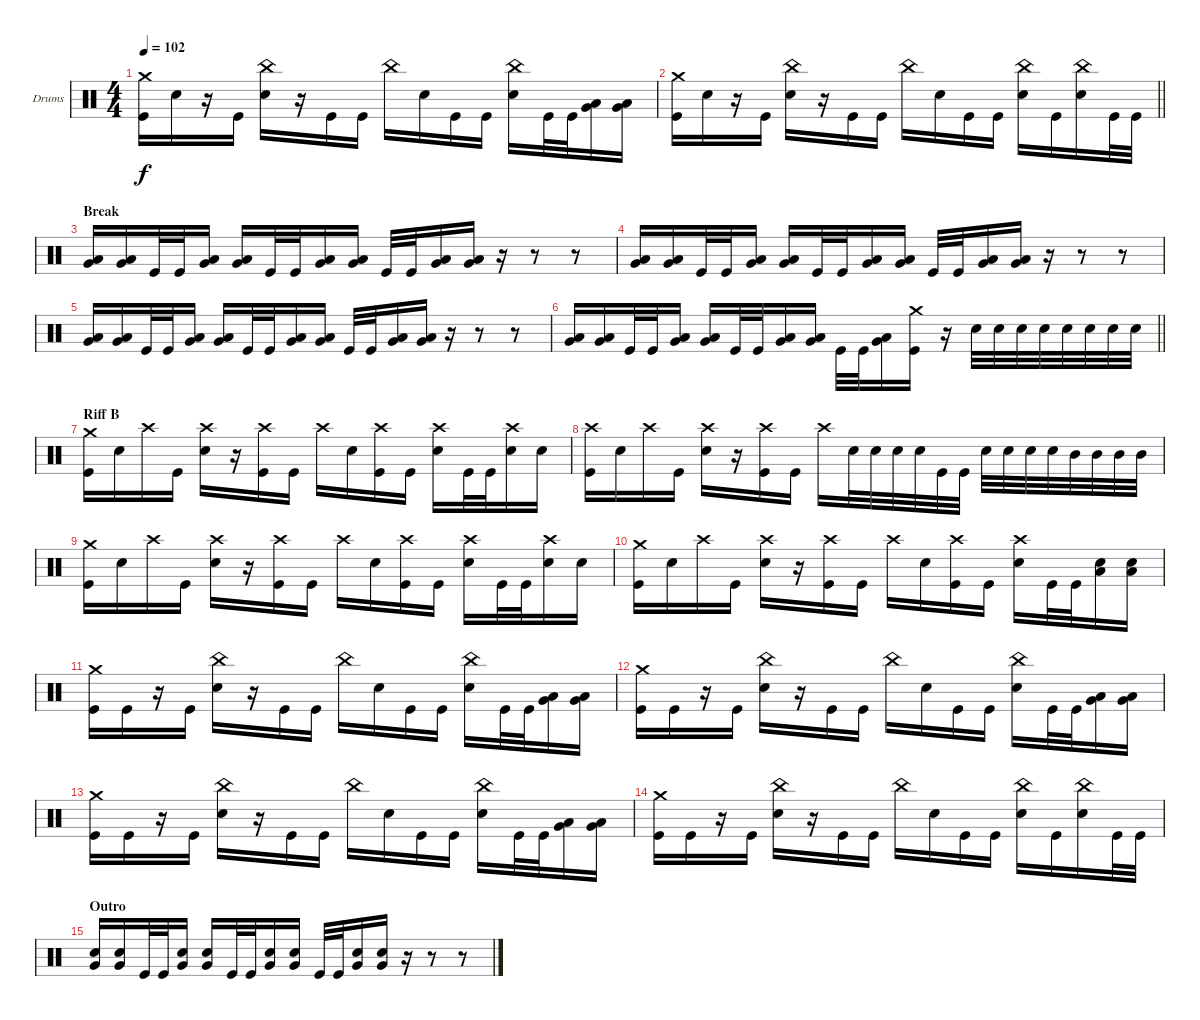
\bracketExtendMode groupsimilarinstruments
\firstSystemTrackNameOrientation horizontal
\otherSystemsTrackNameOrientation horizontal
\track ("Dave McClain" "Drums") {instrument percussion}
\staff {score}
\articulation defaults
\ts (4 4)
\tempo 102
\clef neutral
\ks c
("Crash medium (hit)" "Kick (hit)").16{dy f} "Snare (hit) 2".16 r.16 "Kick (hit)".16 ("China (hit)" "Snare (hit) 2").16 r.16 "Kick (hit)".16 "Kick (hit)".16 "China (hit)".16 "Snare (hit) 2".16 "Kick (hit)".16 "Kick (hit)".16 ("China (hit)" "Snare (hit) 2").16 "Kick (hit)".32 "Kick (hit)".32 ("Low Tom (hit)" "Very Low Tom (hit)").16 ("Low Tom (hit)" "Very Low Tom (hit)").16 |
\barLineRight lightlight
("Crash medium (hit)" "Kick (hit)").16 "Snare (hit) 2".16 r.16 "Kick (hit)".16 ("China (hit)" "Snare (hit) 2").16 r.16 "Kick (hit)".16 "Kick (hit)".16 "China (hit)".16 "Snare (hit) 2".16 "Kick (hit)".16 "Kick (hit)".16 ("China (hit)" "Snare (hit) 2").16 "Kick (hit)".16 ("China (hit)" "Snare (hit) 2").16 "Kick (hit)".32 "Kick (hit)".32 |
\section ("" "Break")
("Low Tom (hit)" "Very Low Tom (hit)").16 ("Low Tom (hit)" "Very Low Tom (hit)").16 "Kick (hit)".32 "Kick (hit)".32 ("Low Tom (hit)" "Very Low Tom (hit)").16 ("Low Tom (hit)" "Very Low Tom (hit)").16 "Kick (hit)".32 "Kick (hit)".32 ("Low Tom (hit)" "Very Low Tom (hit)").16 ("Low Tom (hit)" "Very Low Tom (hit)").16 "Kick (hit)".32 "Kick (hit)".32 ("Low Tom (hit)" "Very Low Tom (hit)").16 ("Low Tom (hit)" "Very Low Tom (hit)").16 r.16 r.8 r.8 |
("Low Tom (hit)" "Very Low Tom (hit)").16 ("Low Tom (hit)" "Very Low Tom (hit)").16 "Kick (hit)".32 "Kick (hit)".32 ("Low Tom (hit)" "Very Low Tom (hit)").16 ("Low Tom (hit)" "Very Low Tom (hit)").16 "Kick (hit)".32 "Kick (hit)".32 ("Low Tom (hit)" "Very Low Tom (hit)").16 ("Low Tom (hit)" "Very Low Tom (hit)").16 "Kick (hit)".32 "Kick (hit)".32 ("Low Tom (hit)" "Very Low Tom (hit)").16 ("Low Tom (hit)" "Very Low Tom (hit)").16 r.16 r.8 r.8 |
("Low Tom (hit)" "Very Low Tom (hit)").16 ("Low Tom (hit)" "Very Low Tom (hit)").16 "Kick (hit)".32 "Kick (hit)".32 ("Low Tom (hit)" "Very Low Tom (hit)").16 ("Low Tom (hit)" "Very Low Tom (hit)").16 "Kick (hit)".32 "Kick (hit)".32 ("Low Tom (hit)" "Very Low Tom (hit)").16 ("Low Tom (hit)" "Very Low Tom (hit)").16 "Kick (hit)".32 "Kick (hit)".32 ("Low Tom (hit)" "Very Low Tom (hit)").16 ("Low Tom (hit)" "Very Low Tom (hit)").16 r.16 r.8 r.8 |
\barLineRight lightlight
("Low Tom (hit)" "Very Low Tom (hit)").16 ("Low Tom (hit)" "Very Low Tom (hit)").16 "Kick (hit)".32 "Kick (hit)".32 ("Low Tom (hit)" "Very Low Tom (hit)").16 ("Low Tom (hit)" "Very Low Tom (hit)").16 "Kick (hit)".32 "Kick (hit)".32 ("Low Tom (hit)" "Very Low Tom (hit)").16 ("Low Tom (hit)" "Very Low Tom (hit)").16 "Kick (hit)".32 "Kick (hit)".32 ("Low Tom (hit)" "Very Low Tom (hit)").16 ("Crash medium (hit)" "Kick (hit)").16 r.16 "Snare (hit) 2".32 "Snare (hit) 2".32 "Snare (hit) 2".32 "Snare (hit) 2".32 "Snare (hit) 2".32 "Snare (hit) 2".32 "Snare (hit) 2".32 "Snare (hit) 2".32 |
\section ("" "Riff B")
("Crash medium (hit)" "Kick (hit)").16 "Snare (hit) 2".16 "Crash high (hit)".16 "Kick (hit)".16 ("Crash high (hit)" "Snare (hit) 2").16 r.16 ("Crash high (hit)" "Kick (hit)").16 "Kick (hit)".16 "Crash high (hit)".16 "Snare (hit) 2".16 ("Crash high (hit)" "Kick (hit)").16 "Kick (hit)".16 ("Crash high (hit)" "Snare (hit) 2").16 "Kick (hit)".32 "Kick (hit)".32 ("Crash high (hit)" "Snare (hit) 2").16 "Snare (hit) 2".16 |
("Crash high (hit)" "Kick (hit)").16 "Snare (hit) 2".16 "Crash high (hit)".16 "Kick (hit)".16 ("Crash high (hit)" "Snare (hit) 2").16 r.16 ("Crash high (hit)" "Kick (hit)").16 "Kick (hit)".16 "Crash high (hit)".16 "Snare (hit) 2".32 "Snare (hit) 2".32 "Snare (hit) 2".32 "Snare (hit) 2".32 "Kick (hit)".32 "Kick (hit)".32 "Snare (hit) 2".32 "Snare (hit) 2".32 "Snare (hit) 2".32 "Snare (hit) 2".32 "Mid Tom (hit)".32 "Mid Tom (hit)".32 "Mid Tom (hit)".32 "Mid Tom (hit)".32 |
("Crash medium (hit)" "Kick (hit)").16 "Snare (hit) 2".16 "Crash high (hit)".16 "Kick (hit)".16 ("Crash high (hit)" "Snare (hit) 2").16 r.16 ("Crash high (hit)" "Kick (hit)").16 "Kick (hit)".16 "Crash high (hit)".16 "Snare (hit) 2".16 ("Crash high (hit)" "Kick (hit)").16 "Kick (hit)".16 ("Crash high (hit)" "Snare (hit) 2").16 "Kick (hit)".32 "Kick (hit)".32 ("Crash high (hit)" "Snare (hit) 2").16 "Snare (hit) 2".16 |
("Crash medium (hit)" "Kick (hit)").16 "Snare (hit) 2".16 "Crash high (hit)".16 "Kick (hit)".16 ("Crash high (hit)" "Snare (hit) 2").16 r.16 ("Crash high (hit)" "Kick (hit)").16 "Kick (hit)".16 "Crash high (hit)".16 "Snare (hit) 2".16 ("Crash high (hit)" "Kick (hit)").16 "Kick (hit)".16 ("Crash high (hit)" "Snare (hit) 2").16 "Kick (hit)".32 "Kick (hit)".32 ("Snare (hit) 2" "Low Tom (hit)").16 ("Snare (hit) 2" "Low Tom (hit)").16 |
("Crash medium (hit)" "Kick (hit)").16 "Kick (hit)".16 r.16 "Kick (hit)".16 ("China (hit)" "Snare (hit) 2").16 r.16 "Kick (hit)".16 "Kick (hit)".16 "China (hit)".16 "Snare (hit) 2".16 "Kick (hit)".16 "Kick (hit)".16 ("China (hit)" "Snare (hit) 2").16 "Kick (hit)".32 "Kick (hit)".32 ("Low Tom (hit)" "Very Low Tom (hit)").16 ("Low Tom (hit)" "Very Low Tom (hit)").16 |
("Crash medium (hit)" "Kick (hit)").16 "Kick (hit)".16 r.16 "Kick (hit)".16 ("China (hit)" "Snare (hit) 2").16 r.16 "Kick (hit)".16 "Kick (hit)".16 "China (hit)".16 "Snare (hit) 2".16 "Kick (hit)".16 "Kick (hit)".16 ("China (hit)" "Snare (hit) 2").16 "Kick (hit)".32 "Kick (hit)".32 ("Low Tom (hit)" "Very Low Tom (hit)").16 ("Low Tom (hit)" "Very Low Tom (hit)").16 |
("Crash medium (hit)" "Kick (hit)").16 "Kick (hit)".16 r.16 "Kick (hit)".16 ("China (hit)" "Snare (hit) 2").16 r.16 "Kick (hit)".16 "Kick (hit)".16 "China (hit)".16 "Snare (hit) 2".16 "Kick (hit)".16 "Kick (hit)".16 ("China (hit)" "Snare (hit) 2").16 "Kick (hit)".32 "Kick (hit)".32 ("Low Tom (hit)" "Very Low Tom (hit)").16 ("Low Tom (hit)" "Very Low Tom (hit)").16 |
("Crash medium (hit)" "Kick (hit)").16 "Kick (hit)".16 r.16 "Kick (hit)".16 ("China (hit)" "Snare (hit) 2").16 r.16 "Kick (hit)".16 "Kick (hit)".16 "China (hit)".16 "Snare (hit) 2".16 "Kick (hit)".16 "Kick (hit)".16 ("China (hit)" "Snare (hit) 2").16 "Kick (hit)".16 ("China (hit)" "Snare (hit) 2").16 "Kick (hit)".32 "Kick (hit)".32 |
\section ("" "Outro")
("Snare (hit) 2" "Very Low Tom (hit)").16 ("Snare (hit) 2" "Very Low Tom (hit)").16 "Kick (hit)".32 "Kick (hit)".32 ("Snare (hit) 2" "Very Low Tom (hit)").16 ("Snare (hit) 2" "Very Low Tom (hit)").16 "Kick (hit)".32 "Kick (hit)".32 ("Snare (hit) 2" "Very Low Tom (hit)").16 ("Snare (hit) 2" "Very Low Tom (hit)").16 "Kick (hit)".32 "Kick (hit)".32 ("Snare (hit) 2" "Very Low Tom (hit)").16 ("Snare (hit) 2" "Very Low Tom (hit)").16 r.16 r.8 r.8
